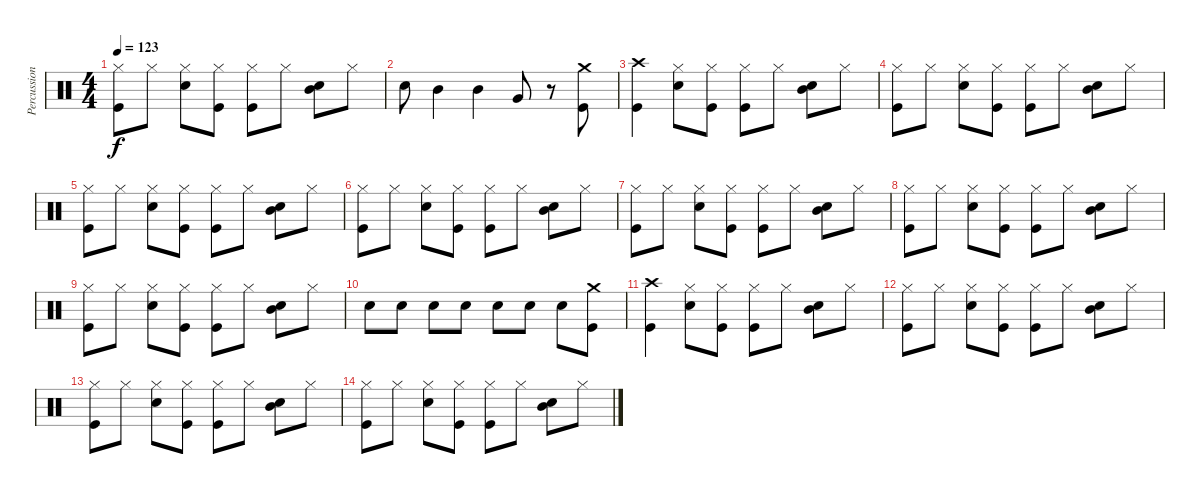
\track ("Percussion" "Percussion") {instrument percussion}
\staff {score}
\articulation defaults
\ts (4 4)
\tempo 123
\clef neutral
\ks c
("Hi-Hat (closed)" "Kick (hit)").8{dy f} "Hi-Hat (closed)".8 ("Hi-Hat (closed)" "Snare (hit) 2").8 ("Hi-Hat (closed)" "Kick (hit)").8 ("Hi-Hat (closed)" "Kick (hit)").8 "Hi-Hat (closed)".8 ("Mid Tom (hit)" "Snare (hit) 2").8 "Hi-Hat (closed)".8 |
"Snare (hit) 2".8 "Mid Tom (hit)".4 "Mid Tom (hit)".4 "Very Low Tom (hit)".8 r.8 ("Crash medium (hit)" "Kick (hit)").8 |
("Crash high (hit)" "Kick (hit)").4 ("Hi-Hat (closed)" "Snare (hit) 2").8 ("Hi-Hat (closed)" "Kick (hit)").8 ("Hi-Hat (closed)" "Kick (hit)").8 "Hi-Hat (closed)".8 ("Mid Tom (hit)" "Snare (hit) 2").8 "Hi-Hat (closed)".8 |
("Hi-Hat (closed)" "Kick (hit)").8 "Hi-Hat (closed)".8 ("Hi-Hat (closed)" "Snare (hit) 2").8 ("Hi-Hat (closed)" "Kick (hit)").8 ("Hi-Hat (closed)" "Kick (hit)").8 "Hi-Hat (closed)".8 ("Mid Tom (hit)" "Snare (hit) 2").8 "Hi-Hat (closed)".8 |
("Hi-Hat (closed)" "Kick (hit)").8 "Hi-Hat (closed)".8 ("Hi-Hat (closed)" "Snare (hit) 2").8 ("Hi-Hat (closed)" "Kick (hit)").8 ("Hi-Hat (closed)" "Kick (hit)").8 "Hi-Hat (closed)".8 ("Mid Tom (hit)" "Snare (hit) 2").8 "Hi-Hat (closed)".8 |
("Hi-Hat (closed)" "Kick (hit)").8 "Hi-Hat (closed)".8 ("Hi-Hat (closed)" "Snare (hit) 2").8 ("Hi-Hat (closed)" "Kick (hit)").8 ("Hi-Hat (closed)" "Kick (hit)").8 "Hi-Hat (closed)".8 ("Mid Tom (hit)" "Snare (hit) 2").8 "Hi-Hat (closed)".8 |
("Hi-Hat (closed)" "Kick (hit)").8 "Hi-Hat (closed)".8 ("Hi-Hat (closed)" "Snare (hit) 2").8 ("Hi-Hat (closed)" "Kick (hit)").8 ("Hi-Hat (closed)" "Kick (hit)").8 "Hi-Hat (closed)".8 ("Mid Tom (hit)" "Snare (hit) 2").8 "Hi-Hat (closed)".8 |
("Hi-Hat (closed)" "Kick (hit)").8 "Hi-Hat (closed)".8 ("Hi-Hat (closed)" "Snare (hit) 2").8 ("Hi-Hat (closed)" "Kick (hit)").8 ("Hi-Hat (closed)" "Kick (hit)").8 "Hi-Hat (closed)".8 ("Mid Tom (hit)" "Snare (hit) 2").8 "Hi-Hat (closed)".8 |
("Hi-Hat (closed)" "Kick (hit)").8 "Hi-Hat (closed)".8 ("Hi-Hat (closed)" "Snare (hit) 2").8 ("Hi-Hat (closed)" "Kick (hit)").8 ("Hi-Hat (closed)" "Kick (hit)").8 "Hi-Hat (closed)".8 ("Mid Tom (hit)" "Snare (hit) 2").8 "Hi-Hat (closed)".8 |
"Snare (hit) 2".8 "Snare (hit) 2".8 "Snare (hit) 2".8 "Snare (hit) 2".8 "Snare (hit) 2".8 "Snare (hit) 2".8 "Snare (hit) 2".8 ("Crash medium (hit)" "Kick (hit)").8 |
("Crash high (hit)" "Kick (hit)").4 ("Hi-Hat (closed)" "Snare (hit) 2").8 ("Hi-Hat (closed)" "Kick (hit)").8 ("Hi-Hat (closed)" "Kick (hit)").8 "Hi-Hat (closed)".8 ("Mid Tom (hit)" "Snare (hit) 2").8 "Hi-Hat (closed)".8 |
("Hi-Hat (closed)" "Kick (hit)").8 "Hi-Hat (closed)".8 ("Hi-Hat (closed)" "Snare (hit) 2").8 ("Hi-Hat (closed)" "Kick (hit)").8 ("Hi-Hat (closed)" "Kick (hit)").8 "Hi-Hat (closed)".8 ("Mid Tom (hit)" "Snare (hit) 2").8 "Hi-Hat (closed)".8 |
("Hi-Hat (closed)" "Kick (hit)").8 "Hi-Hat (closed)".8 ("Hi-Hat (closed)" "Snare (hit) 2").8 ("Hi-Hat (closed)" "Kick (hit)").8 ("Hi-Hat (closed)" "Kick (hit)").8 "Hi-Hat (closed)".8 ("Mid Tom (hit)" "Snare (hit) 2").8 "Hi-Hat (closed)".8 |
("Hi-Hat (closed)" "Kick (hit)").8 "Hi-Hat (closed)".8 ("Hi-Hat (closed)" "Snare (hit) 2").8 ("Hi-Hat (closed)" "Kick (hit)").8 ("Hi-Hat (closed)" "Kick (hit)").8 "Hi-Hat (closed)".8 ("Mid Tom (hit)" "Snare (hit) 2").8 "Hi-Hat (closed)".8
